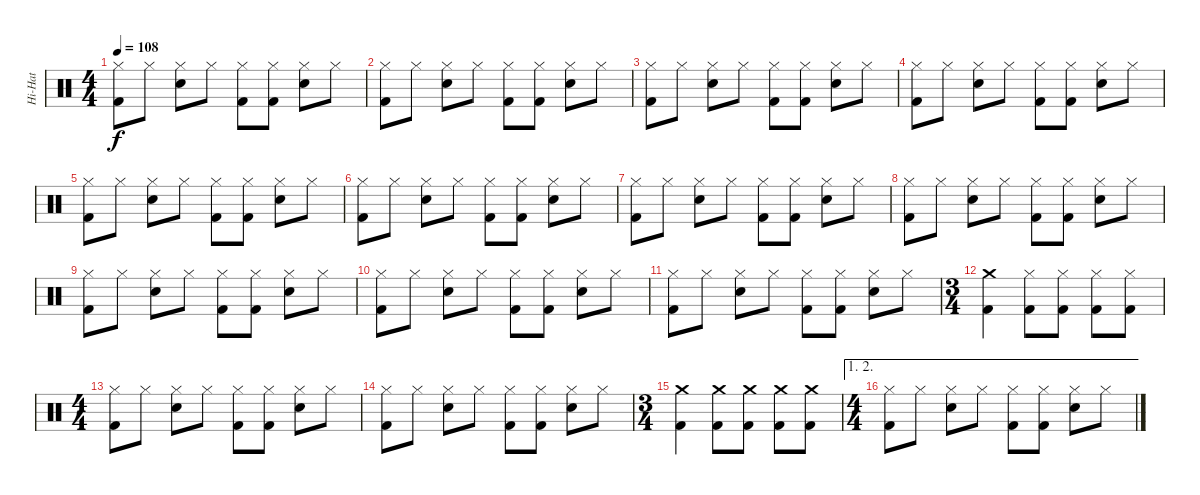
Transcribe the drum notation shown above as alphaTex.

\track ("Hi-Hat" "Hi-Hat") {instrument percussion}
\staff {score}
\articulation defaults
\ts (4 4)
\tempo 108
\clef neutral
\ks c
("Hi-Hat (closed)" "Kick (hit) 2").8{dy f} "Hi-Hat (closed)".8 ("Hi-Hat (closed)" "Snare (hit) 2").8 "Hi-Hat (closed)".8 ("Hi-Hat (closed)" "Kick (hit) 2").8 ("Hi-Hat (closed)" "Kick (hit) 2").8 ("Hi-Hat (closed)" "Snare (hit) 2").8 "Hi-Hat (closed)".8 |
("Hi-Hat (closed)" "Kick (hit) 2").8 "Hi-Hat (closed)".8 ("Hi-Hat (closed)" "Snare (hit) 2").8 "Hi-Hat (closed)".8 ("Hi-Hat (closed)" "Kick (hit) 2").8 ("Hi-Hat (closed)" "Kick (hit) 2").8 ("Hi-Hat (closed)" "Snare (hit) 2").8 "Hi-Hat (closed)".8 |
("Hi-Hat (closed)" "Kick (hit) 2").8 "Hi-Hat (closed)".8 ("Hi-Hat (closed)" "Snare (hit) 2").8 "Hi-Hat (closed)".8 ("Hi-Hat (closed)" "Kick (hit) 2").8 ("Hi-Hat (closed)" "Kick (hit) 2").8 ("Hi-Hat (closed)" "Snare (hit) 2").8 "Hi-Hat (closed)".8 |
("Hi-Hat (closed)" "Kick (hit) 2").8 "Hi-Hat (closed)".8 ("Hi-Hat (closed)" "Snare (hit) 2").8 "Hi-Hat (closed)".8 ("Hi-Hat (closed)" "Kick (hit) 2").8 ("Hi-Hat (closed)" "Kick (hit) 2").8 ("Hi-Hat (closed)" "Snare (hit) 2").8 "Hi-Hat (closed)".8 |
("Hi-Hat (closed)" "Kick (hit) 2").8 "Hi-Hat (closed)".8 ("Hi-Hat (closed)" "Snare (hit) 2").8 "Hi-Hat (closed)".8 ("Hi-Hat (closed)" "Kick (hit) 2").8 ("Hi-Hat (closed)" "Kick (hit) 2").8 ("Hi-Hat (closed)" "Snare (hit) 2").8 "Hi-Hat (closed)".8 |
("Hi-Hat (closed)" "Kick (hit) 2").8 "Hi-Hat (closed)".8 ("Hi-Hat (closed)" "Snare (hit) 2").8 "Hi-Hat (closed)".8 ("Hi-Hat (closed)" "Kick (hit) 2").8 ("Hi-Hat (closed)" "Kick (hit) 2").8 ("Hi-Hat (closed)" "Snare (hit) 2").8 "Hi-Hat (closed)".8 |
("Hi-Hat (closed)" "Kick (hit) 2").8 "Hi-Hat (closed)".8 ("Hi-Hat (closed)" "Snare (hit) 2").8 "Hi-Hat (closed)".8 ("Hi-Hat (closed)" "Kick (hit) 2").8 ("Hi-Hat (closed)" "Kick (hit) 2").8 ("Hi-Hat (closed)" "Snare (hit) 2").8 "Hi-Hat (closed)".8 |
("Hi-Hat (closed)" "Kick (hit) 2").8 "Hi-Hat (closed)".8 ("Hi-Hat (closed)" "Snare (hit) 2").8 "Hi-Hat (closed)".8 ("Hi-Hat (closed)" "Kick (hit) 2").8 ("Hi-Hat (closed)" "Kick (hit) 2").8 ("Hi-Hat (closed)" "Snare (hit) 2").8 "Hi-Hat (closed)".8 |
("Hi-Hat (closed)" "Kick (hit) 2").8 "Hi-Hat (closed)".8 ("Hi-Hat (closed)" "Snare (hit) 2").8 "Hi-Hat (closed)".8 ("Hi-Hat (closed)" "Kick (hit) 2").8 ("Hi-Hat (closed)" "Kick (hit) 2").8 ("Hi-Hat (closed)" "Snare (hit) 2").8 "Hi-Hat (closed)".8 |
("Hi-Hat (closed)" "Kick (hit) 2").8 "Hi-Hat (closed)".8 ("Hi-Hat (closed)" "Snare (hit) 2").8 "Hi-Hat (closed)".8 ("Hi-Hat (closed)" "Kick (hit) 2").8 ("Hi-Hat (closed)" "Kick (hit) 2").8 ("Hi-Hat (closed)" "Snare (hit) 2").8 "Hi-Hat (closed)".8 |
("Hi-Hat (closed)" "Kick (hit) 2").8 "Hi-Hat (closed)".8 ("Hi-Hat (closed)" "Snare (hit) 2").8 "Hi-Hat (closed)".8 ("Hi-Hat (closed)" "Kick (hit) 2").8 ("Hi-Hat (closed)" "Kick (hit) 2").8 ("Hi-Hat (closed)" "Snare (hit) 2").8 "Hi-Hat (closed)".8 |
\ts (3 4)
("Crash medium (hit)" "Kick (hit) 2").4 ("Hi-Hat (closed)" "Kick (hit) 2").8 ("Hi-Hat (closed)" "Kick (hit) 2").8 ("Hi-Hat (closed)" "Kick (hit) 2").8 ("Hi-Hat (closed)" "Kick (hit) 2").8 |
\ts (4 4)
("Hi-Hat (closed)" "Kick (hit) 2").8 "Hi-Hat (closed)".8 ("Hi-Hat (closed)" "Snare (hit) 2").8 "Hi-Hat (closed)".8 ("Hi-Hat (closed)" "Kick (hit) 2").8 ("Hi-Hat (closed)" "Kick (hit) 2").8 ("Hi-Hat (closed)" "Snare (hit) 2").8 "Hi-Hat (closed)".8 |
("Hi-Hat (closed)" "Kick (hit) 2").8 "Hi-Hat (closed)".8 ("Hi-Hat (closed)" "Snare (hit) 2").8 "Hi-Hat (closed)".8 ("Hi-Hat (closed)" "Kick (hit) 2").8 ("Hi-Hat (closed)" "Kick (hit) 2").8 ("Hi-Hat (closed)" "Snare (hit) 2").8 "Hi-Hat (closed)".8 |
\ts (3 4)
("Crash medium (hit)" "Kick (hit) 2").4 ("Crash medium (hit)" "Kick (hit) 2").8 ("Crash medium (hit)" "Kick (hit) 2").8 ("Crash medium (hit)" "Kick (hit) 2").8 ("Crash medium (hit)" "Kick (hit) 2").8 |
\ae (1 2)
\ts (4 4)
("Hi-Hat (closed)" "Kick (hit) 2").8 "Hi-Hat (closed)".8 ("Hi-Hat (closed)" "Snare (hit) 2").8 "Hi-Hat (closed)".8 ("Hi-Hat (closed)" "Kick (hit) 2").8 ("Hi-Hat (closed)" "Kick (hit) 2").8 ("Hi-Hat (closed)" "Snare (hit) 2").8 "Hi-Hat (closed)".8
